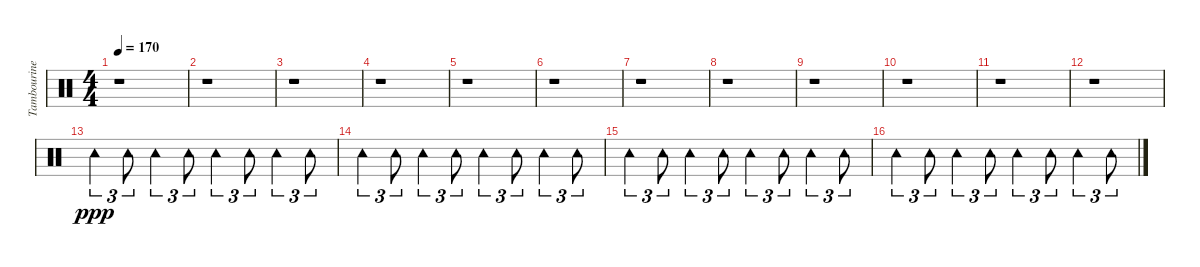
\track ("Tambourine" "Tambourine") {instrument percussion}
\staff {score}
\articulation defaults
\ts (4 4)
\tempo 170
\clef neutral
\ks c
r.1{dy ppp} |
r.1 |
r.1 |
r.1 |
r.1 |
r.1 |
r.1 |
r.1 |
r.1 |
r.1 |
r.1 |
r.1 |
"Tambourine (hit)".4{tu (3 2)} "Tambourine (hit)".8{tu (3 2)} "Tambourine (hit)".4{tu (3 2)} "Tambourine (hit)".8{tu (3 2)} "Tambourine (hit)".4{tu (3 2)} "Tambourine (hit)".8{tu (3 2)} "Tambourine (hit)".4{tu (3 2)} "Tambourine (hit)".8{tu (3 2)} |
"Tambourine (hit)".4{tu (3 2)} "Tambourine (hit)".8{tu (3 2)} "Tambourine (hit)".4{tu (3 2)} "Tambourine (hit)".8{tu (3 2)} "Tambourine (hit)".4{tu (3 2)} "Tambourine (hit)".8{tu (3 2)} "Tambourine (hit)".4{tu (3 2)} "Tambourine (hit)".8{tu (3 2)} |
"Tambourine (hit)".4{tu (3 2)} "Tambourine (hit)".8{tu (3 2)} "Tambourine (hit)".4{tu (3 2)} "Tambourine (hit)".8{tu (3 2)} "Tambourine (hit)".4{tu (3 2)} "Tambourine (hit)".8{tu (3 2)} "Tambourine (hit)".4{tu (3 2)} "Tambourine (hit)".8{tu (3 2)} |
"Tambourine (hit)".4{tu (3 2)} "Tambourine (hit)".8{tu (3 2)} "Tambourine (hit)".4{tu (3 2)} "Tambourine (hit)".8{tu (3 2)} "Tambourine (hit)".4{tu (3 2)} "Tambourine (hit)".8{tu (3 2)} "Tambourine (hit)".4{tu (3 2)} "Tambourine (hit)".8{tu (3 2)}
